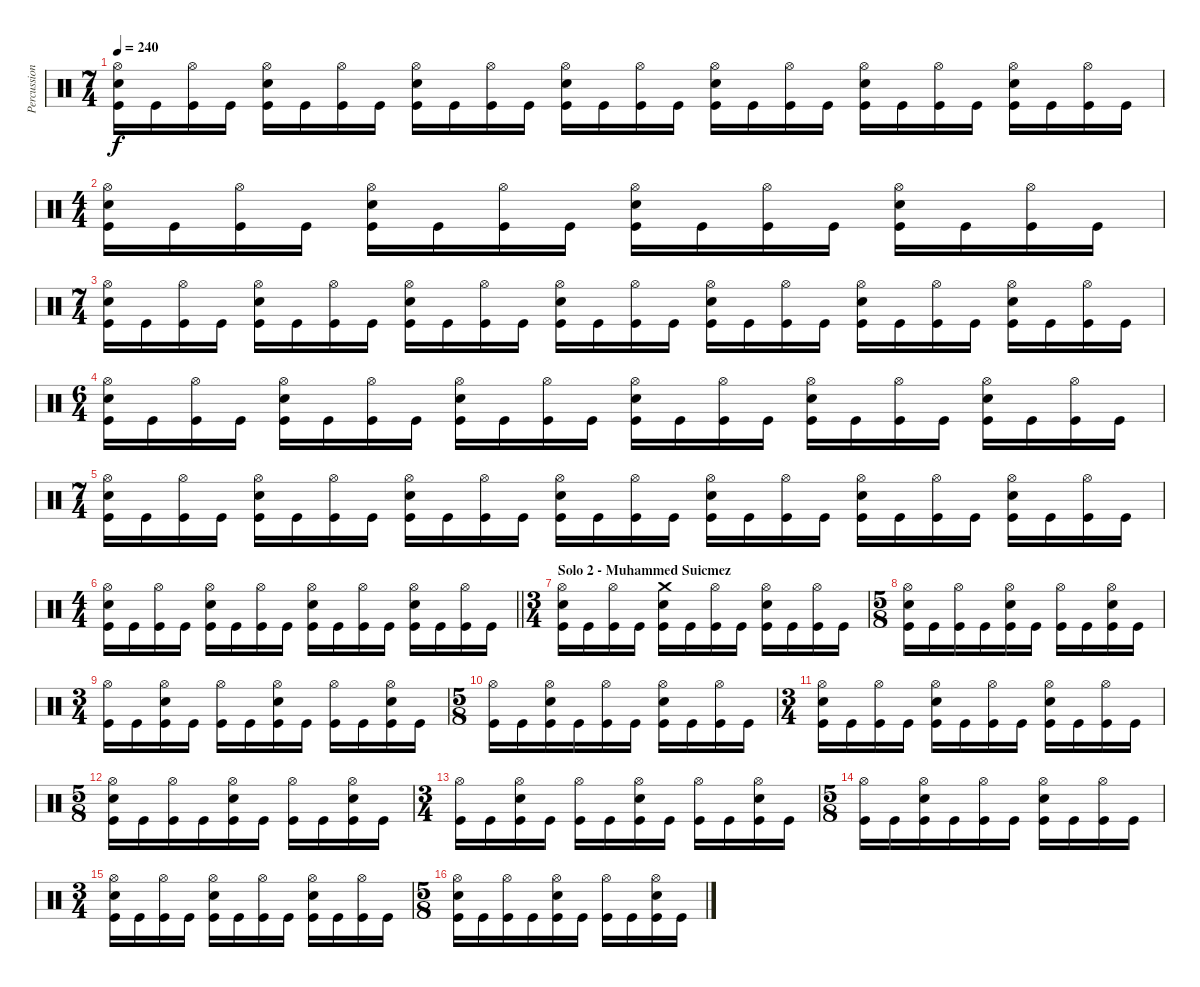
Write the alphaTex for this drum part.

\track ("Percussion" "Percussion") {instrument percussion}
\staff {score}
\articulation defaults
\ts (7 4)
\tempo 240
\clef neutral
\ks c
("Hi-Hat (open)" "Snare (hit) 2" "Kick (hit)").16{dy f} "Kick (hit)".16 ("Hi-Hat (open)" "Kick (hit)").16 "Kick (hit)".16 ("Hi-Hat (open)" "Snare (hit) 2" "Kick (hit)").16 "Kick (hit)".16 ("Hi-Hat (open)" "Kick (hit)").16 "Kick (hit)".16 ("Hi-Hat (open)" "Snare (hit) 2" "Kick (hit)").16 "Kick (hit)".16 ("Hi-Hat (open)" "Kick (hit)").16 "Kick (hit)".16 ("Hi-Hat (open)" "Snare (hit) 2" "Kick (hit)").16 "Kick (hit)".16 ("Hi-Hat (open)" "Kick (hit)").16 "Kick (hit)".16 ("Hi-Hat (open)" "Snare (hit) 2" "Kick (hit)").16 "Kick (hit)".16 ("Hi-Hat (open)" "Kick (hit)").16 "Kick (hit)".16 ("Hi-Hat (open)" "Snare (hit) 2" "Kick (hit)").16 "Kick (hit)".16 ("Hi-Hat (open)" "Kick (hit)").16 "Kick (hit)".16 ("Hi-Hat (open)" "Snare (hit) 2" "Kick (hit)").16 "Kick (hit)".16 ("Hi-Hat (open)" "Kick (hit)").16 "Kick (hit)".16 |
\ts (4 4)
("Hi-Hat (open)" "Snare (hit) 2" "Kick (hit)").16 "Kick (hit)".16 ("Hi-Hat (open)" "Kick (hit)").16 "Kick (hit)".16 ("Hi-Hat (open)" "Snare (hit) 2" "Kick (hit)").16 "Kick (hit)".16 ("Hi-Hat (open)" "Kick (hit)").16 "Kick (hit)".16 ("Hi-Hat (open)" "Snare (hit) 2" "Kick (hit)").16 "Kick (hit)".16 ("Hi-Hat (open)" "Kick (hit)").16 "Kick (hit)".16 ("Hi-Hat (open)" "Snare (hit) 2" "Kick (hit)").16 "Kick (hit)".16 ("Hi-Hat (open)" "Kick (hit)").16 "Kick (hit)".16 |
\ts (7 4)
("Hi-Hat (open)" "Snare (hit) 2" "Kick (hit)").16 "Kick (hit)".16 ("Hi-Hat (open)" "Kick (hit)").16 "Kick (hit)".16 ("Hi-Hat (open)" "Snare (hit) 2" "Kick (hit)").16 "Kick (hit)".16 ("Hi-Hat (open)" "Kick (hit)").16 "Kick (hit)".16 ("Hi-Hat (open)" "Snare (hit) 2" "Kick (hit)").16 "Kick (hit)".16 ("Hi-Hat (open)" "Kick (hit)").16 "Kick (hit)".16 ("Hi-Hat (open)" "Snare (hit) 2" "Kick (hit)").16 "Kick (hit)".16 ("Hi-Hat (open)" "Kick (hit)").16 "Kick (hit)".16 ("Hi-Hat (open)" "Snare (hit) 2" "Kick (hit)").16 "Kick (hit)".16 ("Hi-Hat (open)" "Kick (hit)").16 "Kick (hit)".16 ("Hi-Hat (open)" "Snare (hit) 2" "Kick (hit)").16 "Kick (hit)".16 ("Hi-Hat (open)" "Kick (hit)").16 "Kick (hit)".16 ("Hi-Hat (open)" "Snare (hit) 2" "Kick (hit)").16 "Kick (hit)".16 ("Hi-Hat (open)" "Kick (hit)").16 "Kick (hit)".16 |
\ts (6 4)
("Hi-Hat (open)" "Snare (hit) 2" "Kick (hit)").16 "Kick (hit)".16 ("Hi-Hat (open)" "Kick (hit)").16 "Kick (hit)".16 ("Hi-Hat (open)" "Snare (hit) 2" "Kick (hit)").16 "Kick (hit)".16 ("Hi-Hat (open)" "Kick (hit)").16 "Kick (hit)".16 ("Hi-Hat (open)" "Snare (hit) 2" "Kick (hit)").16 "Kick (hit)".16 ("Hi-Hat (open)" "Kick (hit)").16 "Kick (hit)".16 ("Hi-Hat (open)" "Snare (hit) 2" "Kick (hit)").16 "Kick (hit)".16 ("Hi-Hat (open)" "Kick (hit)").16 "Kick (hit)".16 ("Hi-Hat (open)" "Snare (hit) 2" "Kick (hit)").16 "Kick (hit)".16 ("Hi-Hat (open)" "Kick (hit)").16 "Kick (hit)".16 ("Hi-Hat (open)" "Snare (hit) 2" "Kick (hit)").16 "Kick (hit)".16 ("Hi-Hat (open)" "Kick (hit)").16 "Kick (hit)".16 |
\ts (7 4)
("Hi-Hat (open)" "Snare (hit) 2" "Kick (hit)").16 "Kick (hit)".16 ("Hi-Hat (open)" "Kick (hit)").16 "Kick (hit)".16 ("Hi-Hat (open)" "Snare (hit) 2" "Kick (hit)").16 "Kick (hit)".16 ("Hi-Hat (open)" "Kick (hit)").16 "Kick (hit)".16 ("Hi-Hat (open)" "Snare (hit) 2" "Kick (hit)").16 "Kick (hit)".16 ("Hi-Hat (open)" "Kick (hit)").16 "Kick (hit)".16 ("Hi-Hat (open)" "Snare (hit) 2" "Kick (hit)").16 "Kick (hit)".16 ("Hi-Hat (open)" "Kick (hit)").16 "Kick (hit)".16 ("Hi-Hat (open)" "Snare (hit) 2" "Kick (hit)").16 "Kick (hit)".16 ("Hi-Hat (open)" "Kick (hit)").16 "Kick (hit)".16 ("Hi-Hat (open)" "Snare (hit) 2" "Kick (hit)").16 "Kick (hit)".16 ("Hi-Hat (open)" "Kick (hit)").16 "Kick (hit)".16 ("Hi-Hat (open)" "Snare (hit) 2" "Kick (hit)").16 "Kick (hit)".16 ("Hi-Hat (open)" "Kick (hit)").16 "Kick (hit)".16 |
\ts (4 4)
\barLineRight lightlight
("Hi-Hat (open)" "Snare (hit) 2" "Kick (hit)").16 "Kick (hit)".16 ("Hi-Hat (open)" "Kick (hit)").16 "Kick (hit)".16 ("Hi-Hat (open)" "Snare (hit) 2" "Kick (hit)").16 "Kick (hit)".16 ("Hi-Hat (open)" "Kick (hit)").16 "Kick (hit)".16 ("Hi-Hat (open)" "Snare (hit) 2" "Kick (hit)").16 "Kick (hit)".16 ("Hi-Hat (open)" "Kick (hit)").16 "Kick (hit)".16 ("Hi-Hat (open)" "Snare (hit) 2" "Kick (hit)").16 "Kick (hit)".16 ("Hi-Hat (open)" "Kick (hit)").16 "Kick (hit)".16 |
\ts (3 4)
\section ("" "Solo 2 - Muhammed Suicmez")
("Hi-Hat (open)" "Snare (hit) 2" "Kick (hit)").16 "Kick (hit)".16 ("Hi-Hat (open)" "Kick (hit)").16 "Kick (hit)".16 ("Crash medium (hit)" "Snare (hit) 2" "Kick (hit)").16 "Kick (hit)".16 ("Hi-Hat (open)" "Kick (hit)").16 "Kick (hit)".16 ("Hi-Hat (open)" "Snare (hit) 2" "Kick (hit)").16 "Kick (hit)".16 ("Hi-Hat (open)" "Kick (hit)").16 "Kick (hit)".16 |
\ts (5 8)
("Hi-Hat (open)" "Snare (hit) 2" "Kick (hit)").16 "Kick (hit)".16 ("Hi-Hat (open)" "Kick (hit)").16 "Kick (hit)".16 ("Hi-Hat (open)" "Snare (hit) 2" "Kick (hit)").16 "Kick (hit)".16 ("Hi-Hat (open)" "Kick (hit)").16 "Kick (hit)".16 ("Hi-Hat (open)" "Snare (hit) 2" "Kick (hit)").16 "Kick (hit)".16 |
\ts (3 4)
("Hi-Hat (open)" "Kick (hit)").16 "Kick (hit)".16 ("Hi-Hat (open)" "Snare (hit) 2" "Kick (hit)").16 "Kick (hit)".16 ("Hi-Hat (open)" "Kick (hit)").16 "Kick (hit)".16 ("Hi-Hat (open)" "Snare (hit) 2" "Kick (hit)").16 "Kick (hit)".16 ("Hi-Hat (open)" "Kick (hit)").16 "Kick (hit)".16 ("Hi-Hat (open)" "Snare (hit) 2" "Kick (hit)").16 "Kick (hit)".16 |
\ts (5 8)
("Hi-Hat (open)" "Kick (hit)").16 "Kick (hit)".16 ("Hi-Hat (open)" "Snare (hit) 2" "Kick (hit)").16 "Kick (hit)".16 ("Hi-Hat (open)" "Kick (hit)").16 "Kick (hit)".16 ("Hi-Hat (open)" "Snare (hit) 2" "Kick (hit)").16 "Kick (hit)".16 ("Hi-Hat (open)" "Kick (hit)").16 "Kick (hit)".16 |
\ts (3 4)
("Hi-Hat (open)" "Snare (hit) 2" "Kick (hit)").16 "Kick (hit)".16 ("Hi-Hat (open)" "Kick (hit)").16 "Kick (hit)".16 ("Hi-Hat (open)" "Snare (hit) 2" "Kick (hit)").16 "Kick (hit)".16 ("Hi-Hat (open)" "Kick (hit)").16 "Kick (hit)".16 ("Hi-Hat (open)" "Snare (hit) 2" "Kick (hit)").16 "Kick (hit)".16 ("Hi-Hat (open)" "Kick (hit)").16 "Kick (hit)".16 |
\ts (5 8)
("Hi-Hat (open)" "Snare (hit) 2" "Kick (hit)").16 "Kick (hit)".16 ("Hi-Hat (open)" "Kick (hit)").16 "Kick (hit)".16 ("Hi-Hat (open)" "Snare (hit) 2" "Kick (hit)").16 "Kick (hit)".16 ("Hi-Hat (open)" "Kick (hit)").16 "Kick (hit)".16 ("Hi-Hat (open)" "Snare (hit) 2" "Kick (hit)").16 "Kick (hit)".16 |
\ts (3 4)
("Hi-Hat (open)" "Kick (hit)").16 "Kick (hit)".16 ("Hi-Hat (open)" "Snare (hit) 2" "Kick (hit)").16 "Kick (hit)".16 ("Hi-Hat (open)" "Kick (hit)").16 "Kick (hit)".16 ("Hi-Hat (open)" "Snare (hit) 2" "Kick (hit)").16 "Kick (hit)".16 ("Hi-Hat (open)" "Kick (hit)").16 "Kick (hit)".16 ("Hi-Hat (open)" "Snare (hit) 2" "Kick (hit)").16 "Kick (hit)".16 |
\ts (5 8)
("Hi-Hat (open)" "Kick (hit)").16 "Kick (hit)".16 ("Hi-Hat (open)" "Snare (hit) 2" "Kick (hit)").16 "Kick (hit)".16 ("Hi-Hat (open)" "Kick (hit)").16 "Kick (hit)".16 ("Hi-Hat (open)" "Snare (hit) 2" "Kick (hit)").16 "Kick (hit)".16 ("Hi-Hat (open)" "Kick (hit)").16 "Kick (hit)".16 |
\ts (3 4)
("Hi-Hat (open)" "Snare (hit) 2" "Kick (hit)").16 "Kick (hit)".16 ("Hi-Hat (open)" "Kick (hit)").16 "Kick (hit)".16 ("Hi-Hat (open)" "Snare (hit) 2" "Kick (hit)").16 "Kick (hit)".16 ("Hi-Hat (open)" "Kick (hit)").16 "Kick (hit)".16 ("Hi-Hat (open)" "Snare (hit) 2" "Kick (hit)").16 "Kick (hit)".16 ("Hi-Hat (open)" "Kick (hit)").16 "Kick (hit)".16 |
\ts (5 8)
("Hi-Hat (open)" "Snare (hit) 2" "Kick (hit)").16 "Kick (hit)".16 ("Hi-Hat (open)" "Kick (hit)").16 "Kick (hit)".16 ("Hi-Hat (open)" "Snare (hit) 2" "Kick (hit)").16 "Kick (hit)".16 ("Hi-Hat (open)" "Kick (hit)").16 "Kick (hit)".16 ("Hi-Hat (open)" "Snare (hit) 2" "Kick (hit)").16 "Kick (hit)".16
